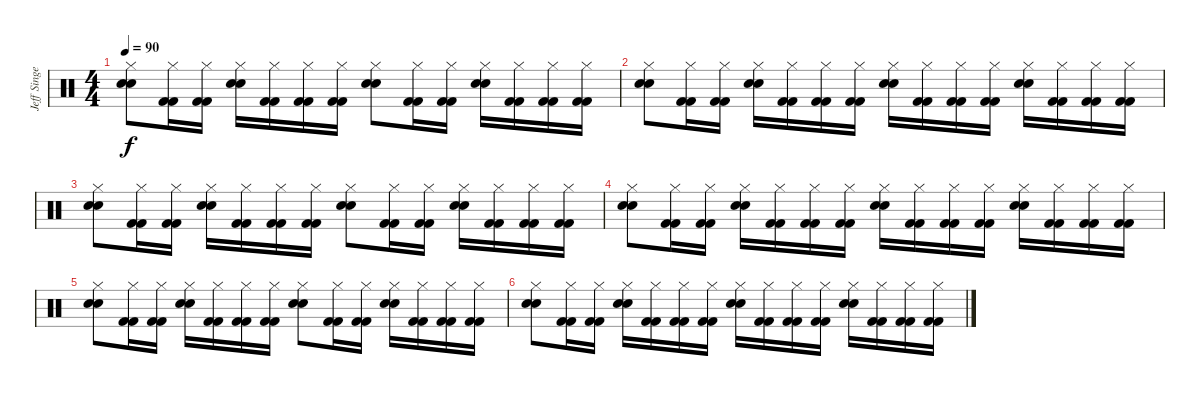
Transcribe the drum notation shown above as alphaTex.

\track ("Jeff Singer" "Jeff Singe") {instrument percussion}
\staff {score}
\articulation defaults
\ts (4 4)
\tempo 90
\clef neutral
\ks c
("Hi-Hat (closed)" "Snare (hit) 2" "Snare (hit) 2").8{dy f} ("Hi-Hat (closed)" "Kick (hit) 2" "Kick (hit) 2").16 ("Hi-Hat (closed)" "Kick (hit) 2" "Kick (hit) 2").16 ("Hi-Hat (closed)" "Snare (hit) 2" "Snare (hit) 2").16 ("Hi-Hat (closed)" "Kick (hit) 2" "Kick (hit) 2").16 ("Hi-Hat (closed)" "Kick (hit) 2" "Kick (hit) 2").16 ("Hi-Hat (closed)" "Kick (hit) 2" "Kick (hit) 2").16 ("Hi-Hat (closed)" "Snare (hit) 2" "Snare (hit) 2").8 ("Hi-Hat (closed)" "Kick (hit) 2" "Kick (hit) 2").16 ("Hi-Hat (closed)" "Kick (hit) 2" "Kick (hit) 2").16 ("Hi-Hat (closed)" "Snare (hit) 2" "Snare (hit) 2").16 ("Hi-Hat (closed)" "Kick (hit) 2" "Kick (hit) 2").16 ("Hi-Hat (closed)" "Kick (hit) 2" "Kick (hit) 2").16 ("Hi-Hat (closed)" "Kick (hit) 2" "Kick (hit) 2").16 |
("Hi-Hat (closed)" "Snare (hit) 2" "Snare (hit) 2").8 ("Hi-Hat (closed)" "Kick (hit) 2" "Kick (hit) 2").16 ("Hi-Hat (closed)" "Kick (hit) 2" "Kick (hit) 2").16 ("Hi-Hat (closed)" "Snare (hit) 2" "Snare (hit) 2").16 ("Hi-Hat (closed)" "Kick (hit) 2" "Kick (hit) 2").16 ("Hi-Hat (closed)" "Kick (hit) 2" "Kick (hit) 2").16 ("Hi-Hat (closed)" "Kick (hit) 2" "Kick (hit) 2").16 ("Hi-Hat (closed)" "Snare (hit) 2" "Snare (hit) 2").16 ("Hi-Hat (closed)" "Kick (hit) 2" "Kick (hit) 2").16 ("Hi-Hat (closed)" "Kick (hit) 2" "Kick (hit) 2").16 ("Hi-Hat (closed)" "Kick (hit) 2" "Kick (hit) 2").16 ("Hi-Hat (closed)" "Snare (hit) 2" "Snare (hit) 2").16 ("Hi-Hat (closed)" "Kick (hit) 2" "Kick (hit) 2").16 ("Hi-Hat (closed)" "Kick (hit) 2" "Kick (hit) 2").16 ("Hi-Hat (closed)" "Kick (hit) 2" "Kick (hit) 2").16 |
("Hi-Hat (closed)" "Snare (hit) 2" "Snare (hit) 2").8 ("Hi-Hat (closed)" "Kick (hit) 2" "Kick (hit) 2").16 ("Hi-Hat (closed)" "Kick (hit) 2" "Kick (hit) 2").16 ("Hi-Hat (closed)" "Snare (hit) 2" "Snare (hit) 2").16 ("Hi-Hat (closed)" "Kick (hit) 2" "Kick (hit) 2").16 ("Hi-Hat (closed)" "Kick (hit) 2" "Kick (hit) 2").16 ("Hi-Hat (closed)" "Kick (hit) 2" "Kick (hit) 2").16 ("Hi-Hat (closed)" "Snare (hit) 2" "Snare (hit) 2").8 ("Hi-Hat (closed)" "Kick (hit) 2" "Kick (hit) 2").16 ("Hi-Hat (closed)" "Kick (hit) 2" "Kick (hit) 2").16 ("Hi-Hat (closed)" "Snare (hit) 2" "Snare (hit) 2").16 ("Hi-Hat (closed)" "Kick (hit) 2" "Kick (hit) 2").16 ("Hi-Hat (closed)" "Kick (hit) 2" "Kick (hit) 2").16 ("Hi-Hat (closed)" "Kick (hit) 2" "Kick (hit) 2").16 |
("Hi-Hat (closed)" "Snare (hit) 2" "Snare (hit) 2").8 ("Hi-Hat (closed)" "Kick (hit) 2" "Kick (hit) 2").16 ("Hi-Hat (closed)" "Kick (hit) 2" "Kick (hit) 2").16 ("Hi-Hat (closed)" "Snare (hit) 2" "Snare (hit) 2").16 ("Hi-Hat (closed)" "Kick (hit) 2" "Kick (hit) 2").16 ("Hi-Hat (closed)" "Kick (hit) 2" "Kick (hit) 2").16 ("Hi-Hat (closed)" "Kick (hit) 2" "Kick (hit) 2").16 ("Hi-Hat (closed)" "Snare (hit) 2" "Snare (hit) 2").16 ("Hi-Hat (closed)" "Kick (hit) 2" "Kick (hit) 2").16 ("Hi-Hat (closed)" "Kick (hit) 2" "Kick (hit) 2").16 ("Hi-Hat (closed)" "Kick (hit) 2" "Kick (hit) 2").16 ("Hi-Hat (closed)" "Snare (hit) 2" "Snare (hit) 2").16 ("Hi-Hat (closed)" "Kick (hit) 2" "Kick (hit) 2").16 ("Hi-Hat (closed)" "Kick (hit) 2" "Kick (hit) 2").16 ("Hi-Hat (closed)" "Kick (hit) 2" "Kick (hit) 2").16 |
("Hi-Hat (closed)" "Snare (hit) 2" "Snare (hit) 2").8 ("Hi-Hat (closed)" "Kick (hit) 2" "Kick (hit) 2").16 ("Hi-Hat (closed)" "Kick (hit) 2" "Kick (hit) 2").16 ("Hi-Hat (closed)" "Snare (hit) 2" "Snare (hit) 2").16 ("Hi-Hat (closed)" "Kick (hit) 2" "Kick (hit) 2").16 ("Hi-Hat (closed)" "Kick (hit) 2" "Kick (hit) 2").16 ("Hi-Hat (closed)" "Kick (hit) 2" "Kick (hit) 2").16 ("Hi-Hat (closed)" "Snare (hit) 2" "Snare (hit) 2").8 ("Hi-Hat (closed)" "Kick (hit) 2" "Kick (hit) 2").16 ("Hi-Hat (closed)" "Kick (hit) 2" "Kick (hit) 2").16 ("Hi-Hat (closed)" "Snare (hit) 2" "Snare (hit) 2").16 ("Hi-Hat (closed)" "Kick (hit) 2" "Kick (hit) 2").16 ("Hi-Hat (closed)" "Kick (hit) 2" "Kick (hit) 2").16 ("Hi-Hat (closed)" "Kick (hit) 2" "Kick (hit) 2").16 |
("Hi-Hat (closed)" "Snare (hit) 2" "Snare (hit) 2").8 ("Hi-Hat (closed)" "Kick (hit) 2" "Kick (hit) 2").16 ("Hi-Hat (closed)" "Kick (hit) 2" "Kick (hit) 2").16 ("Hi-Hat (closed)" "Snare (hit) 2" "Snare (hit) 2").16 ("Hi-Hat (closed)" "Kick (hit) 2" "Kick (hit) 2").16 ("Hi-Hat (closed)" "Kick (hit) 2" "Kick (hit) 2").16 ("Hi-Hat (closed)" "Kick (hit) 2" "Kick (hit) 2").16 ("Hi-Hat (closed)" "Snare (hit) 2" "Snare (hit) 2").16 ("Hi-Hat (closed)" "Kick (hit) 2" "Kick (hit) 2").16 ("Hi-Hat (closed)" "Kick (hit) 2" "Kick (hit) 2").16 ("Hi-Hat (closed)" "Kick (hit) 2" "Kick (hit) 2").16 ("Hi-Hat (closed)" "Snare (hit) 2" "Snare (hit) 2").16 ("Hi-Hat (closed)" "Kick (hit) 2" "Kick (hit) 2").16 ("Hi-Hat (closed)" "Kick (hit) 2" "Kick (hit) 2").16 ("Hi-Hat (closed)" "Kick (hit) 2" "Kick (hit) 2").16
